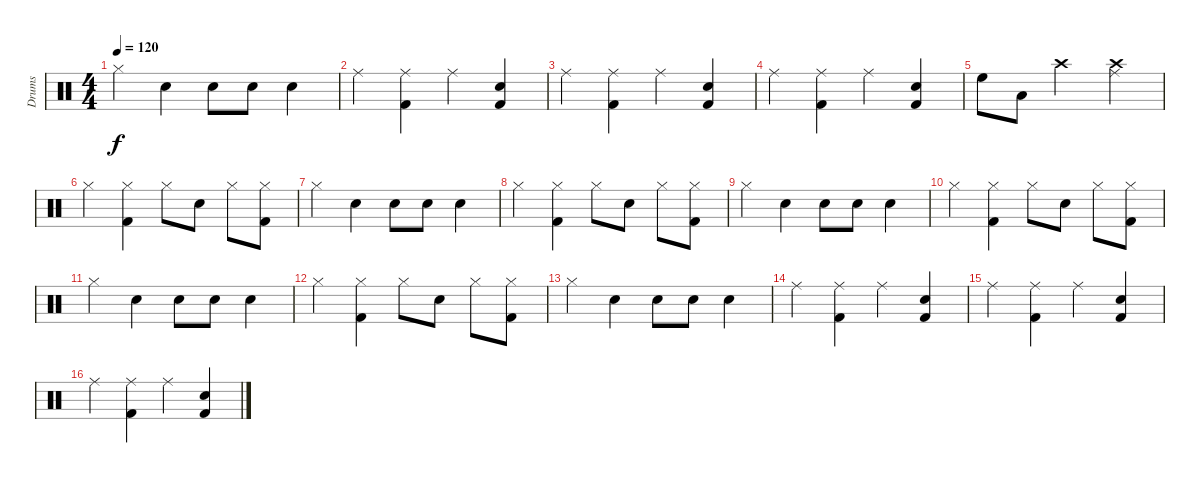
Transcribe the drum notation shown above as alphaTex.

\track ("Drums" "Drums") {instrument percussion}
\staff {score}
\articulation defaults
\ts (4 4)
\tempo 120
\clef neutral
\ks c "Hi-Hat (closed)".4{dy f} "Snare (hit) 2".4 "Snare (hit) 2".8 "Snare (hit) 2".8 "Snare (hit) 2".4
|
"Ride (middle)".4 ("Kick (hit) 2" "Ride (middle)").4 "Ride (middle)".4 ("Kick (hit) 2" "Snare (hit) 2").4 |
"Ride (middle)".4 ("Kick (hit) 2" "Ride (middle)").4 "Ride (middle)".4 ("Kick (hit) 2" "Snare (hit) 2").4 |
"Ride (middle)".4 ("Kick (hit) 2" "Ride (middle)").4 "Ride (middle)".4 ("Kick (hit) 2" "Snare (hit) 2").4 |
"High Floor Tom (hit)".8 "Low Tom (hit)".8 "Crash high (hit)".2 ("Ride (middle)" "Crash high (hit)").4 |
"Hi-Hat (closed)".4 ("Kick (hit) 2" "Hi-Hat (closed)").4 "Hi-Hat (closed)".8 "Snare (hit) 2".8 "Hi-Hat (closed)".8 ("Kick (hit) 2" "Hi-Hat (closed)").8 |
"Hi-Hat (closed)".4 "Snare (hit) 2".4 "Snare (hit) 2".8 "Snare (hit) 2".8 "Snare (hit) 2".4 |
"Hi-Hat (closed)".4 ("Kick (hit) 2" "Hi-Hat (closed)").4 "Hi-Hat (closed)".8 "Snare (hit) 2".8 "Hi-Hat (closed)".8 ("Kick (hit) 2" "Hi-Hat (closed)").8 |
"Hi-Hat (closed)".4 "Snare (hit) 2".4 "Snare (hit) 2".8 "Snare (hit) 2".8 "Snare (hit) 2".4 |
"Hi-Hat (closed)".4 ("Kick (hit) 2" "Hi-Hat (closed)").4 "Hi-Hat (closed)".8 "Snare (hit) 2".8 "Hi-Hat (closed)".8 ("Kick (hit) 2" "Hi-Hat (closed)").8 |
"Hi-Hat (closed)".4 "Snare (hit) 2".4 "Snare (hit) 2".8 "Snare (hit) 2".8 "Snare (hit) 2".4 |
"Hi-Hat (closed)".4 ("Kick (hit) 2" "Hi-Hat (closed)").4 "Hi-Hat (closed)".8 "Snare (hit) 2".8 "Hi-Hat (closed)".8 ("Kick (hit) 2" "Hi-Hat (closed)").8 |
"Hi-Hat (closed)".4 "Snare (hit) 2".4 "Snare (hit) 2".8 "Snare (hit) 2".8 "Snare (hit) 2".4 |
"Ride (middle)".4 ("Kick (hit) 2" "Ride (middle)").4 "Ride (middle)".4 ("Kick (hit) 2" "Snare (hit) 2").4 |
"Ride (middle)".4 ("Kick (hit) 2" "Ride (middle)").4 "Ride (middle)".4 ("Kick (hit) 2" "Snare (hit) 2").4 |
"Ride (middle)".4 ("Kick (hit) 2" "Ride (middle)").4 "Ride (middle)".4 ("Kick (hit) 2" "Snare (hit) 2").4
